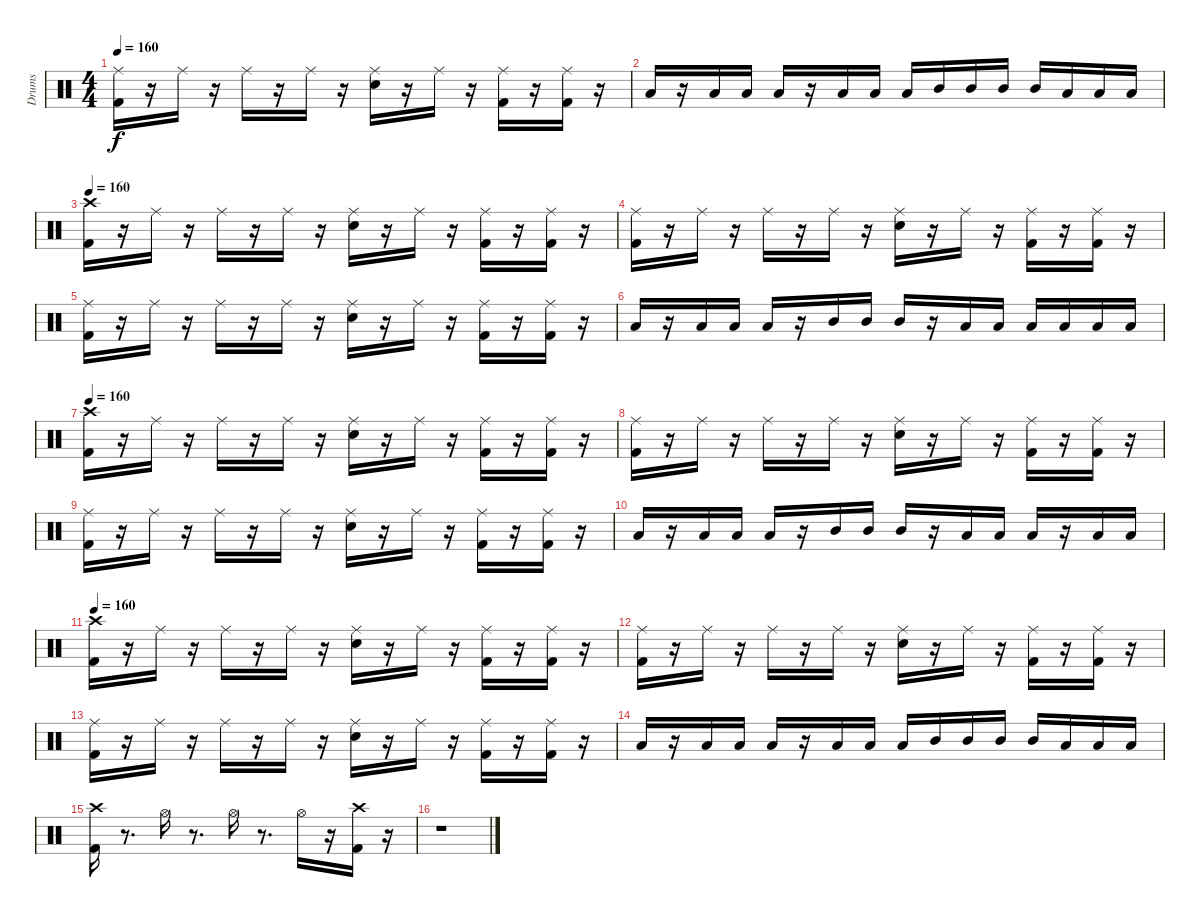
\track ("Drums               " "Drums     ") {instrument percussion}
\staff {score}
\articulation defaults
\ts (4 4)
\tempo 160
\clef neutral
\ks c
("Kick (hit) 2" "Ride (middle)").16{dy f} r.16 "Ride (middle)".16 r.16 "Ride (middle)".16 r.16 "Ride (middle)".16 r.16 ("Snare (hit) 2" "Ride (middle)").16 r.16 "Ride (middle)".16 r.16 ("Kick (hit) 2" "Ride (middle)").16 r.16 ("Kick (hit) 2" "Ride (middle)").16 r.16 |
"Low Floor Tom (hit)".16 r.16 "Low Floor Tom (hit)".16 "Low Floor Tom (hit)".16 "Low Floor Tom (hit)".16 r.16 "Low Tom (hit)".16 "Low Tom (hit)".16 "Low Tom (hit)".16 "Mid Tom (hit)".16 "Mid Tom (hit)".16 "Mid Tom (hit)".16 "Mid Tom (hit)".16 "Low Tom (hit)".16 "Low Tom (hit)".16 "Low Tom (hit)".16 |
\tempo 160
("Kick (hit) 2" "Crash high (hit)").16 r.16 "Ride (middle)".16 r.16 "Ride (middle)".16 r.16 "Ride (middle)".16 r.16 ("Snare (hit) 2" "Ride (middle)").16 r.16 "Ride (middle)".16 r.16 ("Kick (hit) 2" "Ride (middle)").16 r.16 ("Kick (hit) 2" "Ride (middle)").16 r.16 |
("Kick (hit) 2" "Ride (middle)").16 r.16 "Ride (middle)".16 r.16 "Ride (middle)".16 r.16 "Ride (middle)".16 r.16 ("Snare (hit) 2" "Ride (middle)").16 r.16 "Ride (middle)".16 r.16 ("Kick (hit) 2" "Ride (middle)").16 r.16 ("Kick (hit) 2" "Ride (middle)").16 r.16 |
("Kick (hit) 2" "Ride (middle)").16 r.16 "Ride (middle)".16 r.16 "Ride (middle)".16 r.16 "Ride (middle)".16 r.16 ("Snare (hit) 2" "Ride (middle)").16 r.16 "Ride (middle)".16 r.16 ("Kick (hit) 2" "Ride (middle)").16 r.16 ("Kick (hit) 2" "Ride (middle)").16 r.16 |
"Low Tom (hit)".16 r.16 "Low Tom (hit)".16 "Low Tom (hit)".16 "Low Tom (hit)".16 r.16 "Mid Tom (hit)".16 "Mid Tom (hit)".16 "Mid Tom (hit)".16 r.16 "Low Floor Tom (hit)".16 "Low Floor Tom (hit)".16 "Low Floor Tom (hit)".16 "Low Tom (hit)".16 "Low Tom (hit)".16 "Low Tom (hit)".16 |
\tempo 160
("Kick (hit) 2" "Crash high (hit)").16 r.16 "Ride (middle)".16 r.16 "Ride (middle)".16 r.16 "Ride (middle)".16 r.16 ("Snare (hit) 2" "Ride (middle)").16 r.16 "Ride (middle)".16 r.16 ("Kick (hit) 2" "Ride (middle)").16 r.16 ("Kick (hit) 2" "Ride (middle)").16 r.16 |
("Kick (hit) 2" "Ride (middle)").16 r.16 "Ride (middle)".16 r.16 "Ride (middle)".16 r.16 "Ride (middle)".16 r.16 ("Snare (hit) 2" "Ride (middle)").16 r.16 "Ride (middle)".16 r.16 ("Kick (hit) 2" "Ride (middle)").16 r.16 ("Kick (hit) 2" "Ride (middle)").16 r.16 |
("Kick (hit) 2" "Ride (middle)").16 r.16 "Ride (middle)".16 r.16 "Ride (middle)".16 r.16 "Ride (middle)".16 r.16 ("Snare (hit) 2" "Ride (middle)").16 r.16 "Ride (middle)".16 r.16 ("Kick (hit) 2" "Ride (middle)").16 r.16 ("Kick (hit) 2" "Ride (middle)").16 r.16 |
"Low Floor Tom (hit)".16 r.16 "Low Floor Tom (hit)".16 "Low Floor Tom (hit)".16 "Low Floor Tom (hit)".16 r.16 "Mid Tom (hit)".16 "Mid Tom (hit)".16 "Mid Tom (hit)".16 r.16 "Low Tom (hit)".16 "Low Tom (hit)".16 "Low Tom (hit)".16 r.16 "Low Tom (hit)".16 "Low Tom (hit)".16 |
\tempo 160
("Kick (hit) 2" "Crash high (hit)").16 r.16 "Ride (middle)".16 r.16 "Ride (middle)".16 r.16 "Ride (middle)".16 r.16 ("Snare (hit) 2" "Ride (middle)").16 r.16 "Ride (middle)".16 r.16 ("Kick (hit) 2" "Ride (middle)").16 r.16 ("Kick (hit) 2" "Ride (middle)").16 r.16 |
("Kick (hit) 2" "Ride (middle)").16 r.16 "Ride (middle)".16 r.16 "Ride (middle)".16 r.16 "Ride (middle)".16 r.16 ("Snare (hit) 2" "Ride (middle)").16 r.16 "Ride (middle)".16 r.16 ("Kick (hit) 2" "Ride (middle)").16 r.16 ("Kick (hit) 2" "Ride (middle)").16 r.16 |
("Kick (hit) 2" "Ride (middle)").16 r.16 "Ride (middle)".16 r.16 "Ride (middle)".16 r.16 "Ride (middle)".16 r.16 ("Snare (hit) 2" "Ride (middle)").16 r.16 "Ride (middle)".16 r.16 ("Kick (hit) 2" "Ride (middle)").16 r.16 ("Kick (hit) 2" "Ride (middle)").16 r.16 |
"Low Floor Tom (hit)".16 r.16 "Low Floor Tom (hit)".16 "Low Floor Tom (hit)".16 "Low Floor Tom (hit)".16 r.16 "Low Tom (hit)".16 "Low Tom (hit)".16 "Low Tom (hit)".16 "Mid Tom (hit)".16 "Mid Tom (hit)".16 "Mid Tom (hit)".16 "Mid Tom (hit)".16 "Low Tom (hit)".16 "Low Tom (hit)".16 "Low Tom (hit)".16 |
("Kick (hit) 2" "Crash high (hit)").16 r.8{d} "Hi-Hat (open)".16 r.8{d} "Hi-Hat (open)".16 r.8{d} "Hi-Hat (open)".16 r.16 ("Kick (hit) 2" "Crash high (hit)").16 r.16 |
r.1
